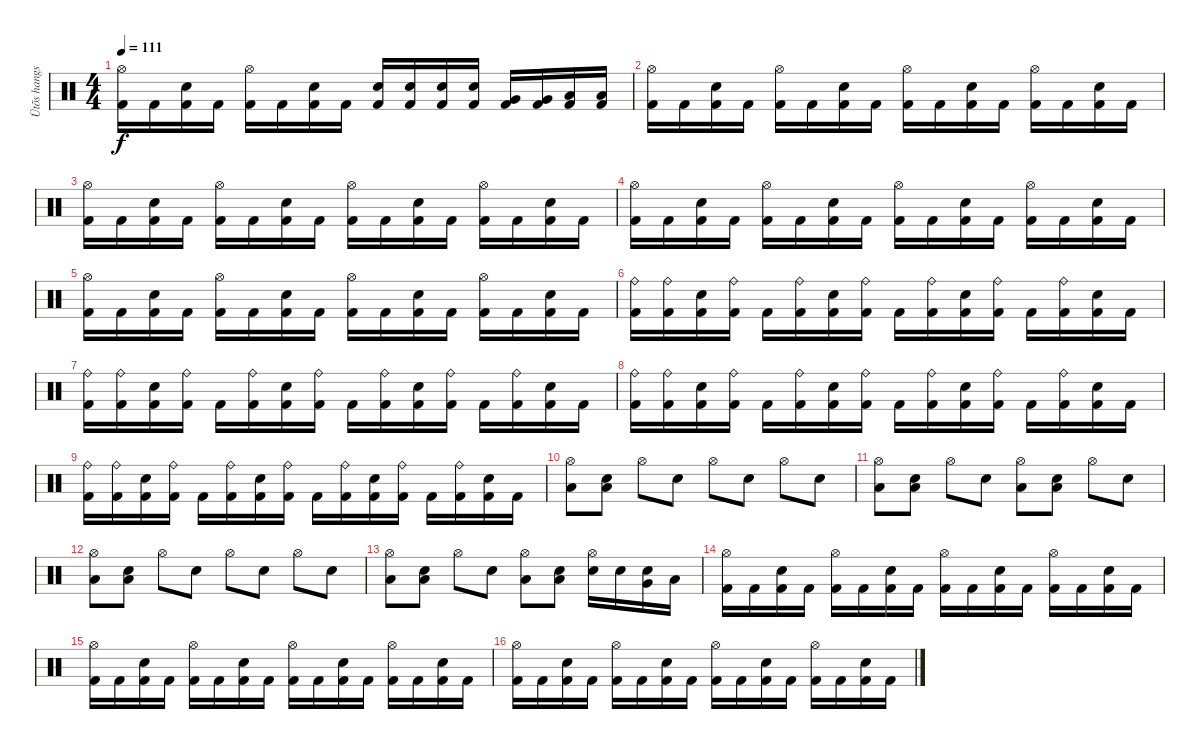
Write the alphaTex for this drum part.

\track ("Ütõs hangszer" "Ütõs hangs") {instrument percussion}
\staff {score}
\articulation defaults
\ts (4 4)
\tempo 111
\clef neutral
\ks c
("Kick (hit) 2" "Hi-Hat (open)").16{dy f} "Kick (hit) 2".16 ("Kick (hit) 2" "Electric Snare (hit)").16 "Kick (hit) 2".16 ("Kick (hit) 2" "Hi-Hat (open)").16 "Kick (hit) 2".16 ("Kick (hit) 2" "Electric Snare (hit)").16 "Kick (hit) 2".16 ("Kick (hit) 2" "Electric Snare (hit)").16 ("Kick (hit) 2" "Electric Snare (hit)").16 ("Kick (hit) 2" "Electric Snare (hit)").16 ("Kick (hit) 2" "Electric Snare (hit)").16 ("Kick (hit) 2" "Very Low Tom (hit)").16 ("Kick (hit) 2" "Very Low Tom (hit)").16 ("Kick (hit) 2" "Low Floor Tom (hit)").16 ("Kick (hit) 2" "Low Floor Tom (hit)").16 |
("Kick (hit) 2" "Hi-Hat (open)").16 "Kick (hit) 2".16 ("Kick (hit) 2" "Electric Snare (hit)").16 "Kick (hit) 2".16 ("Kick (hit) 2" "Hi-Hat (open)").16 "Kick (hit) 2".16 ("Kick (hit) 2" "Electric Snare (hit)").16 "Kick (hit) 2".16 ("Kick (hit) 2" "Hi-Hat (open)").16 "Kick (hit) 2".16 ("Kick (hit) 2" "Electric Snare (hit)").16 "Kick (hit) 2".16 ("Kick (hit) 2" "Hi-Hat (open)").16 "Kick (hit) 2".16 ("Kick (hit) 2" "Electric Snare (hit)").16 "Kick (hit) 2".16 |
("Kick (hit) 2" "Hi-Hat (open)").16 "Kick (hit) 2".16 ("Kick (hit) 2" "Electric Snare (hit)").16 "Kick (hit) 2".16 ("Kick (hit) 2" "Hi-Hat (open)").16 "Kick (hit) 2".16 ("Kick (hit) 2" "Electric Snare (hit)").16 "Kick (hit) 2".16 ("Kick (hit) 2" "Hi-Hat (open)").16 "Kick (hit) 2".16 ("Kick (hit) 2" "Electric Snare (hit)").16 "Kick (hit) 2".16 ("Kick (hit) 2" "Hi-Hat (open)").16 "Kick (hit) 2".16 ("Kick (hit) 2" "Electric Snare (hit)").16 "Kick (hit) 2".16 |
("Kick (hit) 2" "Hi-Hat (open)").16 "Kick (hit) 2".16 ("Kick (hit) 2" "Electric Snare (hit)").16 "Kick (hit) 2".16 ("Kick (hit) 2" "Hi-Hat (open)").16 "Kick (hit) 2".16 ("Kick (hit) 2" "Electric Snare (hit)").16 "Kick (hit) 2".16 ("Kick (hit) 2" "Hi-Hat (open)").16 "Kick (hit) 2".16 ("Kick (hit) 2" "Electric Snare (hit)").16 "Kick (hit) 2".16 ("Kick (hit) 2" "Hi-Hat (open)").16 "Kick (hit) 2".16 ("Kick (hit) 2" "Electric Snare (hit)").16 "Kick (hit) 2".16 |
("Kick (hit) 2" "Hi-Hat (open)").16 "Kick (hit) 2".16 ("Kick (hit) 2" "Electric Snare (hit)").16 "Kick (hit) 2".16 ("Kick (hit) 2" "Hi-Hat (open)").16 "Kick (hit) 2".16 ("Kick (hit) 2" "Electric Snare (hit)").16 "Kick (hit) 2".16 ("Kick (hit) 2" "Hi-Hat (open)").16 "Kick (hit) 2".16 ("Kick (hit) 2" "Electric Snare (hit)").16 "Kick (hit) 2".16 ("Kick (hit) 2" "Hi-Hat (open)").16 "Kick (hit) 2".16 ("Kick (hit) 2" "Electric Snare (hit)").16 "Kick (hit) 2".16 |
("Kick (hit) 2" "Ride (bell)").16 ("Kick (hit) 2" "Ride (bell)").16 ("Kick (hit) 2" "Electric Snare (hit)").16 ("Kick (hit) 2" "Ride (bell)").16 "Kick (hit) 2".16 ("Kick (hit) 2" "Ride (bell)").16 ("Kick (hit) 2" "Electric Snare (hit)").16 ("Kick (hit) 2" "Ride (bell)").16 "Kick (hit) 2".16 ("Kick (hit) 2" "Ride (bell)").16 ("Kick (hit) 2" "Electric Snare (hit)").16 ("Kick (hit) 2" "Ride (bell)").16 "Kick (hit) 2".16 ("Kick (hit) 2" "Ride (bell)").16 ("Kick (hit) 2" "Electric Snare (hit)").16 "Kick (hit) 2".16 |
("Kick (hit) 2" "Ride (bell)").16 ("Kick (hit) 2" "Ride (bell)").16 ("Kick (hit) 2" "Electric Snare (hit)").16 ("Kick (hit) 2" "Ride (bell)").16 "Kick (hit) 2".16 ("Kick (hit) 2" "Ride (bell)").16 ("Kick (hit) 2" "Electric Snare (hit)").16 ("Kick (hit) 2" "Ride (bell)").16 "Kick (hit) 2".16 ("Kick (hit) 2" "Ride (bell)").16 ("Kick (hit) 2" "Electric Snare (hit)").16 ("Kick (hit) 2" "Ride (bell)").16 "Kick (hit) 2".16 ("Kick (hit) 2" "Ride (bell)").16 ("Kick (hit) 2" "Electric Snare (hit)").16 "Kick (hit) 2".16 |
("Kick (hit) 2" "Ride (bell)").16 ("Kick (hit) 2" "Ride (bell)").16 ("Kick (hit) 2" "Electric Snare (hit)").16 ("Kick (hit) 2" "Ride (bell)").16 "Kick (hit) 2".16 ("Kick (hit) 2" "Ride (bell)").16 ("Kick (hit) 2" "Electric Snare (hit)").16 ("Kick (hit) 2" "Ride (bell)").16 "Kick (hit) 2".16 ("Kick (hit) 2" "Ride (bell)").16 ("Kick (hit) 2" "Electric Snare (hit)").16 ("Kick (hit) 2" "Ride (bell)").16 "Kick (hit) 2".16 ("Kick (hit) 2" "Ride (bell)").16 ("Kick (hit) 2" "Electric Snare (hit)").16 "Kick (hit) 2".16 |
("Kick (hit) 2" "Ride (bell)").16 ("Kick (hit) 2" "Ride (bell)").16 ("Kick (hit) 2" "Electric Snare (hit)").16 ("Kick (hit) 2" "Ride (bell)").16 "Kick (hit) 2".16 ("Kick (hit) 2" "Ride (bell)").16 ("Kick (hit) 2" "Electric Snare (hit)").16 ("Kick (hit) 2" "Ride (bell)").16 "Kick (hit) 2".16 ("Kick (hit) 2" "Ride (bell)").16 ("Kick (hit) 2" "Electric Snare (hit)").16 ("Kick (hit) 2" "Ride (bell)").16 "Kick (hit) 2".16 ("Kick (hit) 2" "Ride (bell)").16 ("Kick (hit) 2" "Electric Snare (hit)").16 "Kick (hit) 2".16 |
("Hi-Hat (open)" "Low Floor Tom (hit)").8 ("Electric Snare (hit)" "Low Floor Tom (hit)").8 "Hi-Hat (open)".8 "Electric Snare (hit)".8 "Hi-Hat (open)".8 "Electric Snare (hit)".8 "Hi-Hat (open)".8 "Electric Snare (hit)".8 |
("Hi-Hat (open)" "Low Floor Tom (hit)").8 ("Electric Snare (hit)" "Low Floor Tom (hit)").8 "Hi-Hat (open)".8 "Electric Snare (hit)".8 ("Hi-Hat (open)" "Low Floor Tom (hit)").8 ("Electric Snare (hit)" "Low Floor Tom (hit)").8 "Hi-Hat (open)".8 "Electric Snare (hit)".8 |
("Hi-Hat (open)" "Low Floor Tom (hit)").8 ("Electric Snare (hit)" "Low Floor Tom (hit)").8 "Hi-Hat (open)".8 "Electric Snare (hit)".8 "Hi-Hat (open)".8 "Electric Snare (hit)".8 "Hi-Hat (open)".8 "Electric Snare (hit)".8 |
("Hi-Hat (open)" "Low Floor Tom (hit)").8 ("Electric Snare (hit)" "Low Floor Tom (hit)").8 "Hi-Hat (open)".8 "Electric Snare (hit)".8 ("Hi-Hat (open)" "Low Floor Tom (hit)").8 ("Electric Snare (hit)" "Low Floor Tom (hit)").8 ("Hi-Hat (open)" "Electric Snare (hit)").16 "Electric Snare (hit)".16 ("Electric Snare (hit)" "Very Low Tom (hit)").16 "Low Floor Tom (hit)".16 |
("Kick (hit) 2" "Hi-Hat (open)").16 "Kick (hit) 2".16 ("Kick (hit) 2" "Electric Snare (hit)").16 "Kick (hit) 2".16 ("Kick (hit) 2" "Hi-Hat (open)").16 "Kick (hit) 2".16 ("Kick (hit) 2" "Electric Snare (hit)").16 "Kick (hit) 2".16 ("Kick (hit) 2" "Hi-Hat (open)").16 "Kick (hit) 2".16 ("Kick (hit) 2" "Electric Snare (hit)").16 "Kick (hit) 2".16 ("Kick (hit) 2" "Hi-Hat (open)").16 "Kick (hit) 2".16 ("Kick (hit) 2" "Electric Snare (hit)").16 "Kick (hit) 2".16 |
("Kick (hit) 2" "Hi-Hat (open)").16 "Kick (hit) 2".16 ("Kick (hit) 2" "Electric Snare (hit)").16 "Kick (hit) 2".16 ("Kick (hit) 2" "Hi-Hat (open)").16 "Kick (hit) 2".16 ("Kick (hit) 2" "Electric Snare (hit)").16 "Kick (hit) 2".16 ("Kick (hit) 2" "Hi-Hat (open)").16 "Kick (hit) 2".16 ("Kick (hit) 2" "Electric Snare (hit)").16 "Kick (hit) 2".16 ("Kick (hit) 2" "Hi-Hat (open)").16 "Kick (hit) 2".16 ("Kick (hit) 2" "Electric Snare (hit)").16 "Kick (hit) 2".16 |
("Kick (hit) 2" "Hi-Hat (open)").16 "Kick (hit) 2".16 ("Kick (hit) 2" "Electric Snare (hit)").16 "Kick (hit) 2".16 ("Kick (hit) 2" "Hi-Hat (open)").16 "Kick (hit) 2".16 ("Kick (hit) 2" "Electric Snare (hit)").16 "Kick (hit) 2".16 ("Kick (hit) 2" "Hi-Hat (open)").16 "Kick (hit) 2".16 ("Kick (hit) 2" "Electric Snare (hit)").16 "Kick (hit) 2".16 ("Kick (hit) 2" "Hi-Hat (open)").16 "Kick (hit) 2".16 ("Kick (hit) 2" "Electric Snare (hit)").16 "Kick (hit) 2".16
